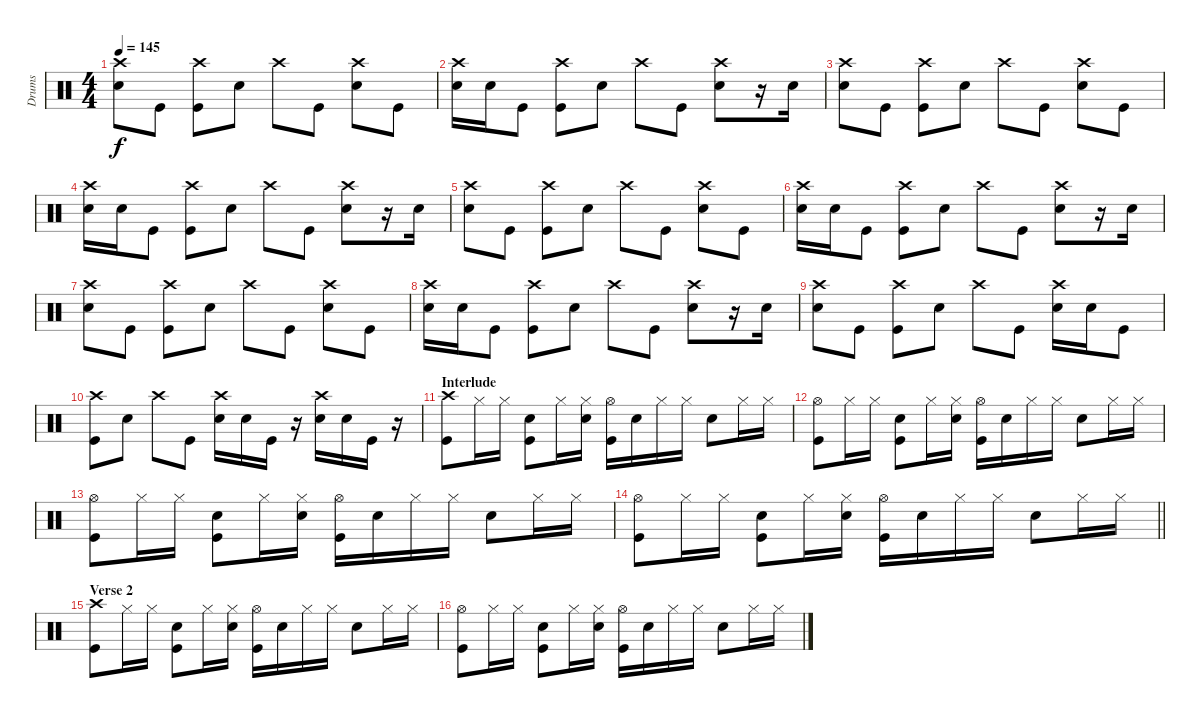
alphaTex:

\track ("Drums" "Drums") {instrument percussion}
\staff {score}
\articulation defaults
\ts (4 4)
\tempo 145
\clef neutral
\ks c
("Crash high (hit)" "Electric Snare (hit)").8{dy f} "Kick (hit)".8 ("Crash high (hit)" "Kick (hit)").8 "Electric Snare (hit)".8 "Crash high (hit)".8 "Kick (hit)".8 ("Crash high (hit)" "Electric Snare (hit)").8 "Kick (hit)".8 |
("Crash high (hit)" "Electric Snare (hit)").16 "Electric Snare (hit)".16 "Kick (hit)".8 ("Crash high (hit)" "Kick (hit)").8 "Electric Snare (hit)".8 "Crash high (hit)".8 "Kick (hit)".8 ("Crash high (hit)" "Electric Snare (hit)").8 r.16 "Electric Snare (hit)".16 |
("Crash high (hit)" "Electric Snare (hit)").8 "Kick (hit)".8 ("Crash high (hit)" "Kick (hit)").8 "Electric Snare (hit)".8 "Crash high (hit)".8 "Kick (hit)".8 ("Crash high (hit)" "Electric Snare (hit)").8 "Kick (hit)".8 |
("Crash high (hit)" "Electric Snare (hit)").16 "Electric Snare (hit)".16 "Kick (hit)".8 ("Crash high (hit)" "Kick (hit)").8 "Electric Snare (hit)".8 "Crash high (hit)".8 "Kick (hit)".8 ("Crash high (hit)" "Electric Snare (hit)").8 r.16 "Electric Snare (hit)".16 |
("Crash high (hit)" "Electric Snare (hit)").8 "Kick (hit)".8 ("Crash high (hit)" "Kick (hit)").8 "Electric Snare (hit)".8 "Crash high (hit)".8 "Kick (hit)".8 ("Crash high (hit)" "Electric Snare (hit)").8 "Kick (hit)".8 |
("Crash high (hit)" "Electric Snare (hit)").16 "Electric Snare (hit)".16 "Kick (hit)".8 ("Crash high (hit)" "Kick (hit)").8 "Electric Snare (hit)".8 "Crash high (hit)".8 "Kick (hit)".8 ("Crash high (hit)" "Electric Snare (hit)").8 r.16 "Electric Snare (hit)".16 |
("Crash high (hit)" "Electric Snare (hit)").8 "Kick (hit)".8 ("Crash high (hit)" "Kick (hit)").8 "Electric Snare (hit)".8 "Crash high (hit)".8 "Kick (hit)".8 ("Crash high (hit)" "Electric Snare (hit)").8 "Kick (hit)".8 |
("Crash high (hit)" "Electric Snare (hit)").16 "Electric Snare (hit)".16 "Kick (hit)".8 ("Crash high (hit)" "Kick (hit)").8 "Electric Snare (hit)".8 "Crash high (hit)".8 "Kick (hit)".8 ("Crash high (hit)" "Electric Snare (hit)").8 r.16 "Electric Snare (hit)".16 |
("Crash high (hit)" "Electric Snare (hit)").8 "Kick (hit)".8 ("Crash high (hit)" "Kick (hit)").8 "Electric Snare (hit)".8 "Crash high (hit)".8 "Kick (hit)".8 ("Crash high (hit)" "Electric Snare (hit)").16 "Electric Snare (hit)".16 "Kick (hit)".8 |
("Crash high (hit)" "Kick (hit)").8 "Electric Snare (hit)".8 "Crash high (hit)".8 "Kick (hit)".8 ("Crash high (hit)" "Electric Snare (hit)").16 "Electric Snare (hit)".16 "Kick (hit)".16 r.16 ("Crash high (hit)" "Electric Snare (hit)").16 "Electric Snare (hit)".16 "Kick (hit)".16 r.16 |
\section ("" "Interlude")
("Crash high (hit)" "Kick (hit)").8 "Hi-Hat (closed)".16 "Hi-Hat (closed)".16 ("Electric Snare (hit)" "Kick (hit)").8 "Hi-Hat (closed)".16 ("Hi-Hat (closed)" "Electric Snare (hit)").16 ("Hi-Hat (open)" "Kick (hit)").16 "Electric Snare (hit)".16 "Hi-Hat (closed)".16 "Hi-Hat (closed)".16 "Electric Snare (hit)".8 "Hi-Hat (closed)".16 "Hi-Hat (closed)".16 |
("Hi-Hat (open)" "Kick (hit)").8 "Hi-Hat (closed)".16 "Hi-Hat (closed)".16 ("Electric Snare (hit)" "Kick (hit)").8 "Hi-Hat (closed)".16 ("Hi-Hat (closed)" "Electric Snare (hit)").16 ("Hi-Hat (open)" "Kick (hit)").16 "Electric Snare (hit)".16 "Hi-Hat (closed)".16 "Hi-Hat (closed)".16 "Electric Snare (hit)".8 "Hi-Hat (closed)".16 "Hi-Hat (closed)".16 |
("Hi-Hat (open)" "Kick (hit)").8 "Hi-Hat (closed)".16 "Hi-Hat (closed)".16 ("Electric Snare (hit)" "Kick (hit)").8 "Hi-Hat (closed)".16 ("Hi-Hat (closed)" "Electric Snare (hit)").16 ("Hi-Hat (open)" "Kick (hit)").16 "Electric Snare (hit)".16 "Hi-Hat (closed)".16 "Hi-Hat (closed)".16 "Electric Snare (hit)".8 "Hi-Hat (closed)".16 "Hi-Hat (closed)".16 |
\barLineRight lightlight
("Hi-Hat (open)" "Kick (hit)").8 "Hi-Hat (closed)".16 "Hi-Hat (closed)".16 ("Electric Snare (hit)" "Kick (hit)").8 "Hi-Hat (closed)".16 ("Hi-Hat (closed)" "Electric Snare (hit)").16 ("Hi-Hat (open)" "Kick (hit)").16 "Electric Snare (hit)".16 "Hi-Hat (closed)".16 "Hi-Hat (closed)".16 "Electric Snare (hit)".8 "Hi-Hat (closed)".16 "Hi-Hat (closed)".16 |
\section ("" "Verse 2")
("Crash high (hit)" "Kick (hit)").8 "Hi-Hat (closed)".16 "Hi-Hat (closed)".16 ("Electric Snare (hit)" "Kick (hit)").8 "Hi-Hat (closed)".16 ("Hi-Hat (closed)" "Electric Snare (hit)").16 ("Hi-Hat (open)" "Kick (hit)").16 "Electric Snare (hit)".16 "Hi-Hat (closed)".16 "Hi-Hat (closed)".16 "Electric Snare (hit)".8 "Hi-Hat (closed)".16 "Hi-Hat (closed)".16 |
("Hi-Hat (open)" "Kick (hit)").8 "Hi-Hat (closed)".16 "Hi-Hat (closed)".16 ("Electric Snare (hit)" "Kick (hit)").8 "Hi-Hat (closed)".16 ("Hi-Hat (closed)" "Electric Snare (hit)").16 ("Hi-Hat (open)" "Kick (hit)").16 "Electric Snare (hit)".16 "Hi-Hat (closed)".16 "Hi-Hat (closed)".16 "Electric Snare (hit)".8 "Hi-Hat (closed)".16 "Hi-Hat (closed)".16
